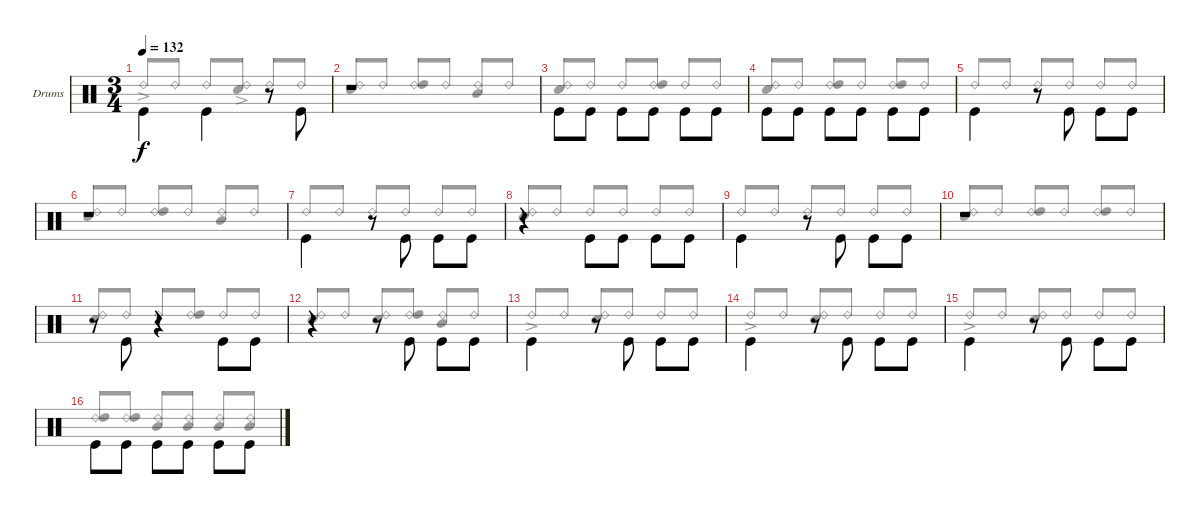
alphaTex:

\bracketExtendMode groupsimilarinstruments
\firstSystemTrackNameOrientation horizontal
\otherSystemsTrackNameOrientation horizontal
\track ("Drum" "Drums") {instrument percussion}
\staff {score}
\articulation defaults
\voice
\ts (3 4)
\tempo 132
\clef neutral
\scale
0.973518
\ks aminor "Kick (hit)".4{dy f beam invert} "Kick (hit)".4{beam invert}
r.8{beam invert} "Kick (hit)".8{beam invert} |
\scale
1.02648 r.1 |
\scale
0.973518 "Kick (hit)".8{beam invert} "Kick (hit)".8 "Kick (hit)".8{beam invert} "Kick (hit)".8 "Kick (hit)".8{beam invert} "Kick (hit)".8 |
\scale
1.02648 "Kick (hit)".8{beam invert} "Kick (hit)".8 "Kick (hit)".8{beam invert} "Kick (hit)".8 "Kick (hit)".8{beam invert} "Kick (hit)".8 |
\scale
1.05675 "Kick (hit)".4{beam invert} r.8{beam invert} "Kick (hit)".8{beam invert} "Kick (hit)".8{beam invert} "Kick (hit)".8 |
\scale
0.943253 r.1 |
\scale
1.02648 "Kick (hit)".4{beam invert} r.8{beam invert} "Kick (hit)".8{beam invert} "Kick (hit)".8{beam invert} "Kick (hit)".8 |
\scale
0.973518 r.4 "Kick (hit)".8{beam invert} "Kick (hit)".8 "Kick (hit)".8{beam invert} "Kick (hit)".8 |
\scale
1.02648 "Kick (hit)".4{beam invert} r.8{beam invert} "Kick (hit)".8{beam invert} "Kick (hit)".8{beam invert} "Kick (hit)".8 |
\scale
0.973518 r.1 |
\scale
1.02648 r.8{beam invert} "Kick (hit)".8{beam invert} r.4 "Kick (hit)".8{beam invert} "Kick (hit)".8 |
\scale
0.973518 r.4{beam invert} r.8{beam invert} "Kick (hit)".8{beam invert} "Kick (hit)".8{beam invert} "Kick (hit)".8 |
\scale
1.02648 "Kick (hit)".4{beam invert} r.8{beam invert} "Kick (hit)".8{beam invert} "Kick (hit)".8{beam invert} "Kick (hit)".8 |
\scale
0.973518 "Kick (hit)".4{beam invert} r.8{beam invert} "Kick (hit)".8{beam invert} "Kick (hit)".8{beam invert} "Kick (hit)".8 |
\scale
1.02648 "Kick (hit)".4{beam invert} r.8{beam invert} "Kick (hit)".8{beam invert} "Kick (hit)".8{beam invert} "Kick (hit)".8 |
\scale
0.973518 "Kick (hit)".8{beam invert} "Kick (hit)".8 "Kick (hit)".8{beam invert} "Kick (hit)".8 "Kick (hit)".8{beam invert} "Kick (hit)".8
\voice
\clef neutral
\ottava regular
\simile none
\scale
0.973518
\ks aminor "Ride (bell) 2"{ac}.8{dy f} "Ride (bell) 2".8{beam invert} "Ride (bell) 2".8{beam invert}
("Ride (bell) 2"{ac} "Snare (hit) 2").8 "Ride (bell) 2".8{beam invert} "Ride (bell) 2".8 |
\scale
1.02648 ("Snare (hit) 2" "Ride (bell) 2").8 "Ride (bell) 2".8{beam invert} ("Ride (bell) 2" "High Tom (hit)").8 "Ride (bell) 2".8{beam invert} ("Ride (bell) 2" "Mid Tom (hit)").8{beam invert} "Ride (bell) 2".8 |
\scale
0.973518 ("Snare (hit) 2" "Ride (bell) 2").8 "Ride (bell) 2".8{beam invert} "Ride (bell) 2".8 ("Ride (bell) 2" "High Tom (hit)").8{beam invert} "Ride (bell) 2".8{beam invert} "Ride (bell) 2".8 |
\scale
1.02648 ("Snare (hit) 2" "Ride (bell) 2").8 "Ride (bell) 2".8{beam invert} ("Ride (bell) 2" "High Tom (hit)").8 "Ride (bell) 2".8{beam invert} ("Ride (bell) 2" "High Tom (hit)").8{beam invert} "Ride (bell) 2".8 |
\scale
1.05675 "Ride (bell) 2".8 "Ride (bell) 2".8{beam invert} "Ride (bell) 2".8{beam invert} "Ride (bell) 2".8 "Ride (bell) 2".8{beam invert} "Ride (bell) 2".8 |
\scale
0.943253 ("Snare (hit) 2" "Ride (bell) 2").8 "Ride (bell) 2".8{beam invert} ("Ride (bell) 2" "High Tom (hit)").8 "Ride (bell) 2".8{beam invert} ("Ride (bell) 2" "Mid Tom (hit)").8{beam invert} "Ride (bell) 2".8 |
\scale
1.02648 "Ride (bell) 2".8 "Ride (bell) 2".8{beam invert} "Ride (bell) 2".8{beam invert} "Ride (bell) 2".8 "Ride (bell) 2".8{beam invert} "Ride (bell) 2".8 |
\scale
0.973518 ("Ride (bell) 2" "Snare (hit) 2").8 "Ride (bell) 2".8{beam invert} "Ride (bell) 2".8{beam invert} "Ride (bell) 2".8 "Ride (bell) 2".8{beam invert} "Ride (bell) 2".8 |
\scale
1.02648 "Ride (bell) 2".8 "Ride (bell) 2".8{beam invert} "Ride (bell) 2".8{beam invert} "Ride (bell) 2".8 "Ride (bell) 2".8{beam invert} "Ride (bell) 2".8 |
\scale
0.973518 ("Snare (hit) 2" "Ride (bell) 2").8 "Ride (bell) 2".8{beam invert} ("Ride (bell) 2" "High Tom (hit)").8 "Ride (bell) 2".8{beam invert} ("Ride (bell) 2" "High Tom (hit)").8{beam invert} "Ride (bell) 2".8 |
\scale
1.02648 ("Snare (hit) 2" "Ride (bell) 2").8 "Ride (bell) 2".8{beam invert} "Ride (bell) 2".8 ("Ride (bell) 2" "High Tom (hit)").8{beam invert} "Ride (bell) 2".8{beam invert} "Ride (bell) 2".8 |
\scale
0.973518 ("Snare (hit) 2" "Ride (bell) 2").8 "Ride (bell) 2".8{beam invert} ("Ride (bell) 2" "Snare (hit) 2").8 ("Ride (bell) 2" "High Tom (hit)").8{beam invert} ("Ride (bell) 2" "Mid Tom (hit)").8{beam invert} "Ride (bell) 2".8 |
\scale
1.02648 "Ride (bell) 2"{ac}.8 "Ride (bell) 2".8{beam invert} ("Ride (bell) 2" "Snare (hit) 2").8{beam invert} "Ride (bell) 2".8 "Ride (bell) 2".8{beam invert} "Ride (bell) 2".8 |
\scale
0.973518 "Ride (bell) 2"{ac}.8 "Ride (bell) 2".8{beam invert} ("Ride (bell) 2" "Snare (hit) 2").8{beam invert} "Ride (bell) 2".8 "Ride (bell) 2".8{beam invert} "Ride (bell) 2".8 |
\scale
1.02648 "Ride (bell) 2"{ac}.8 "Ride (bell) 2".8{beam invert} ("Ride (bell) 2" "Snare (hit) 2").8{beam invert} "Ride (bell) 2".8 "Ride (bell) 2".8{beam invert} "Ride (bell) 2".8 |
\scale
0.973518 ("Ride (bell) 2" "High Tom (hit)").8 ("Ride (bell) 2" "High Tom (hit)").8{beam invert} ("Ride (bell) 2" "Mid Tom (hit)").8{beam invert} ("Ride (bell) 2" "Mid Tom (hit)").8 ("Ride (bell) 2" "Mid Tom (hit)").8{beam invert} ("Ride (bell) 2" "Mid Tom (hit)").8
